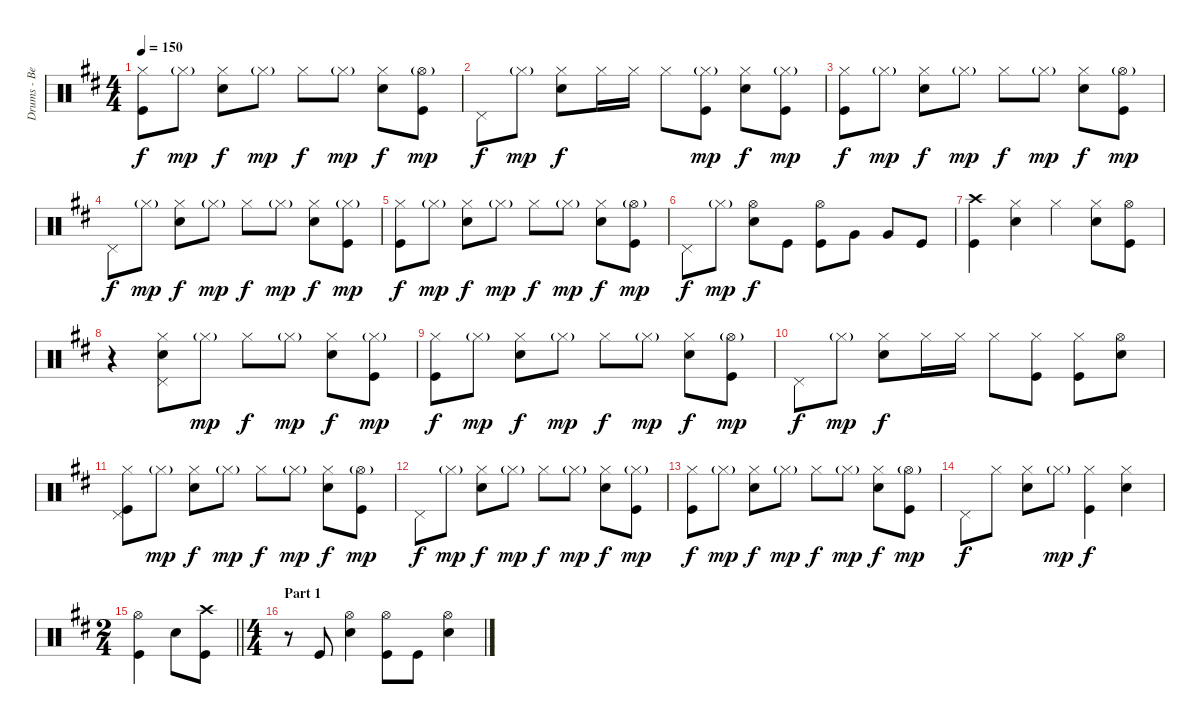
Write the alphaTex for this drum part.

\track ("Drums - Ben Johnston" "Drums - Be") {instrument percussion}
\staff {score}
\articulation defaults
\ts (4 4)
\tempo 150
\clef neutral
\ks d
("Hi-Hat (closed)" "Kick (hit)").8{dy f} "Hi-Hat (closed)"{g}.8{dy mp} ("Hi-Hat (closed)" "Snare (hit) 2").8{dy f} "Hi-Hat (closed)"{g}.8{dy mp} "Hi-Hat (closed)".8{dy f} "Hi-Hat (closed)"{g}.8{dy mp} ("Hi-Hat (closed)" "Snare (hit) 2").8{dy f} ("Hi-Hat (open)"{g} "Kick (hit)").8{dy mp} |
"Pedal Hi-Hat (hit)".8{dy f} "Hi-Hat (closed)"{g}.8{dy mp} ("Hi-Hat (closed)" "Snare (hit) 2").8{dy f} "Hi-Hat (closed)".16 "Hi-Hat (closed)".16 "Hi-Hat (closed)".8 ("Hi-Hat (closed)"{g} "Kick (hit)").8{dy mp} ("Hi-Hat (closed)" "Snare (hit) 2").8{dy f} ("Hi-Hat (closed)"{g} "Kick (hit)").8{dy mp} |
("Hi-Hat (closed)" "Kick (hit)").8{dy f} "Hi-Hat (closed)"{g}.8{dy mp} ("Hi-Hat (closed)" "Snare (hit) 2").8{dy f} "Hi-Hat (closed)"{g}.8{dy mp} "Hi-Hat (closed)".8{dy f} "Hi-Hat (closed)"{g}.8{dy mp} ("Hi-Hat (closed)" "Snare (hit) 2").8{dy f} ("Hi-Hat (open)"{g} "Kick (hit)").8{dy mp} |
"Pedal Hi-Hat (hit)".8{dy f} "Hi-Hat (closed)"{g}.8{dy mp} ("Hi-Hat (closed)" "Snare (hit) 2").8{dy f} "Hi-Hat (closed)"{g}.8{dy mp} "Hi-Hat (closed)".8{dy f} "Hi-Hat (closed)"{g}.8{dy mp} ("Hi-Hat (closed)" "Snare (hit) 2").8{dy f} ("Hi-Hat (closed)"{g} "Kick (hit)").8{dy mp} |
("Hi-Hat (closed)" "Kick (hit)").8{dy f} "Hi-Hat (closed)"{g}.8{dy mp} ("Hi-Hat (closed)" "Snare (hit) 2").8{dy f} "Hi-Hat (closed)"{g}.8{dy mp} "Hi-Hat (closed)".8{dy f} "Hi-Hat (closed)"{g}.8{dy mp} ("Hi-Hat (closed)" "Snare (hit) 2").8{dy f} ("Hi-Hat (open)"{g} "Kick (hit)").8{dy mp} |
"Pedal Hi-Hat (hit)".8{dy f} "Hi-Hat (closed)"{g}.8{dy mp} ("Hi-Hat (open)" "Snare (hit) 2").8{dy f} "Kick (hit)".8 ("Hi-Hat (open)" "Kick (hit)").8 "Very Low Tom (hit)".8 "Very Low Tom (hit)".8 "Kick (hit)".8 |
("Crash high (hit)" "Kick (hit)").4 ("Hi-Hat (closed)" "Snare (hit) 2").4 "Hi-Hat (closed)".4 ("Hi-Hat (closed)" "Snare (hit) 2").8 ("Hi-Hat (open)" "Kick (hit)").8 |
r.4 ("Hi-Hat (closed)" "Pedal Hi-Hat (hit)" "Snare (hit) 2").8 "Hi-Hat (closed)"{g}.8{dy mp} "Hi-Hat (closed)".8{dy f} "Hi-Hat (closed)"{g}.8{dy mp} ("Hi-Hat (closed)" "Snare (hit) 2").8{dy f} ("Hi-Hat (closed)"{g} "Kick (hit)").8{dy mp} |
("Hi-Hat (closed)" "Kick (hit)").8{dy f} "Hi-Hat (closed)"{g}.8{dy mp} ("Hi-Hat (closed)" "Snare (hit) 2").8{dy f} "Hi-Hat (closed)"{g}.8{dy mp} "Hi-Hat (closed)".8{dy f} "Hi-Hat (closed)"{g}.8{dy mp} ("Hi-Hat (closed)" "Snare (hit) 2").8{dy f} ("Hi-Hat (open)"{g} "Kick (hit)").8{dy mp} |
"Pedal Hi-Hat (hit)".8{dy f} "Hi-Hat (closed)"{g}.8{dy mp} ("Hi-Hat (closed)" "Snare (hit) 2").8{dy f} "Hi-Hat (closed)".16 "Hi-Hat (closed)".16 "Hi-Hat (closed)".8 ("Hi-Hat (closed)" "Kick (hit)").8 ("Hi-Hat (closed)" "Kick (hit)").8 ("Hi-Hat (open)" "Snare (hit) 2").8 |
("Hi-Hat (closed)" "Pedal Hi-Hat (hit)" "Kick (hit)").8 "Hi-Hat (closed)"{g}.8{dy mp} ("Hi-Hat (closed)" "Snare (hit) 2").8{dy f} "Hi-Hat (closed)"{g}.8{dy mp} "Hi-Hat (closed)".8{dy f} "Hi-Hat (closed)"{g}.8{dy mp} ("Hi-Hat (closed)" "Snare (hit) 2").8{dy f} ("Hi-Hat (open)"{g} "Kick (hit)").8{dy mp} |
"Pedal Hi-Hat (hit)".8{dy f} "Hi-Hat (closed)"{g}.8{dy mp} ("Hi-Hat (closed)" "Snare (hit) 2").8{dy f} "Hi-Hat (closed)"{g}.8{dy mp} "Hi-Hat (closed)".8{dy f} "Hi-Hat (closed)"{g}.8{dy mp} ("Hi-Hat (closed)" "Snare (hit) 2").8{dy f} ("Hi-Hat (closed)"{g} "Kick (hit)").8{dy mp} |
("Hi-Hat (closed)" "Kick (hit)").8{dy f} "Hi-Hat (closed)"{g}.8{dy mp} ("Hi-Hat (closed)" "Snare (hit) 2").8{dy f} "Hi-Hat (closed)"{g}.8{dy mp} "Hi-Hat (closed)".8{dy f} "Hi-Hat (closed)"{g}.8{dy mp} ("Hi-Hat (closed)" "Snare (hit) 2").8{dy f} ("Hi-Hat (open)"{g} "Kick (hit)").8{dy mp} |
"Pedal Hi-Hat (hit)".8{dy f} "Hi-Hat (closed)".8 ("Hi-Hat (closed)" "Snare (hit) 2").8 "Hi-Hat (closed)"{g}.8{dy mp} ("Hi-Hat (closed)" "Kick (hit)").4{dy f} ("Hi-Hat (closed)" "Snare (hit) 2").4 |
\ts (2 4)
\barLineRight lightlight
("Hi-Hat (open)" "Kick (hit)").4 "Snare (hit) 2".8 ("Crash high (hit)" "Kick (hit)").8 |
\ts (4 4)
\section ("" "Part 1")
r.8 "Kick (hit)".8 ("Hi-Hat (open)" "Snare (hit) 2").4 ("Hi-Hat (open)" "Kick (hit)").8 "Kick (hit)".8 ("Hi-Hat (open)" "Snare (hit) 2").4
